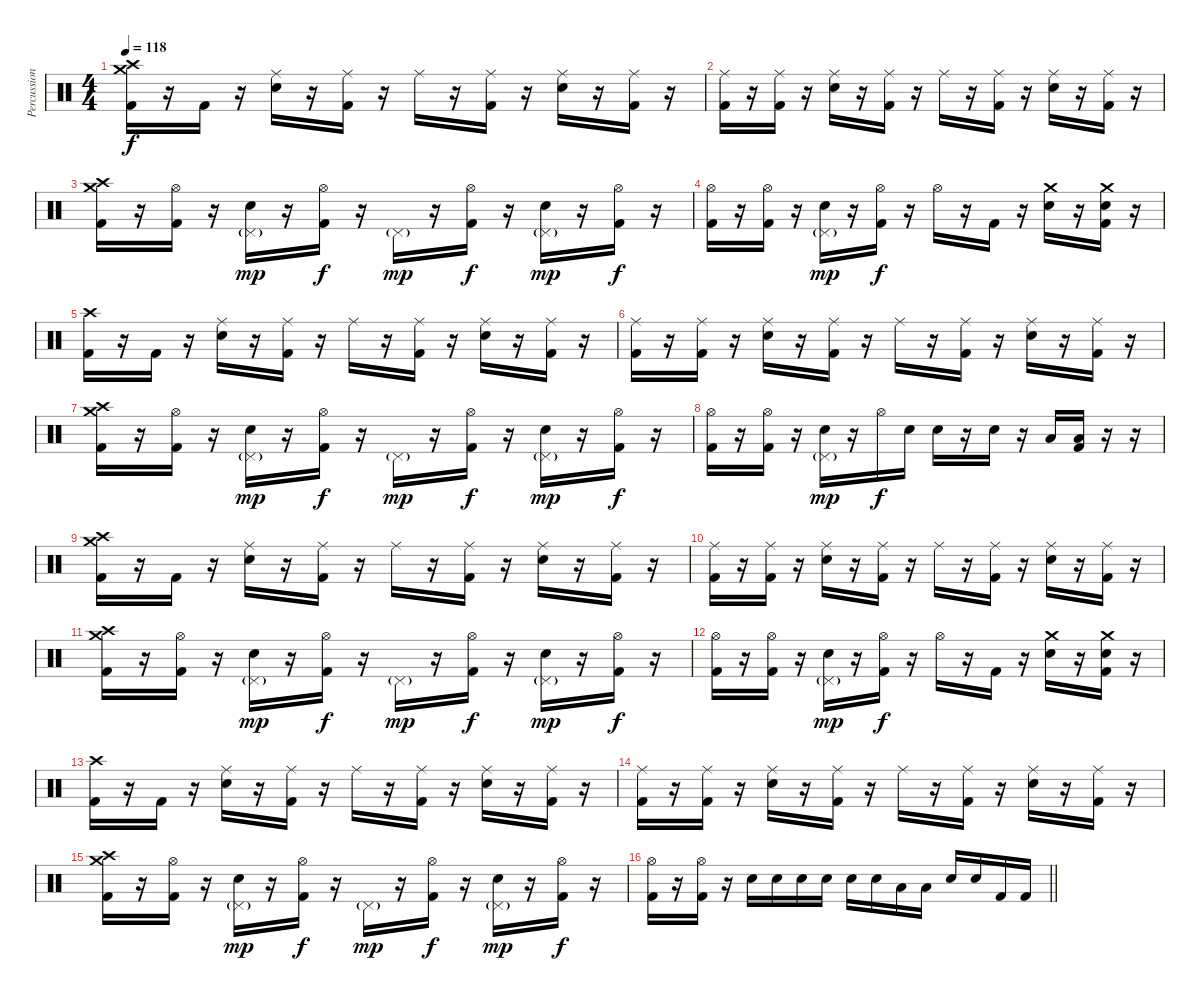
\track ("Percussion" "Percussion") {instrument percussion}
\staff {score}
\articulation defaults
\ts (4 4)
\section ("" "")
\tempo 118
\clef neutral
\ks c
("Crash medium (hit)" "Crash high (hit)" "Kick (hit) 2").16{dy f} r.16 "Kick (hit) 2".16 r.16 ("Ride (middle)" "Electric Snare (hit)").16 r.16 ("Ride (middle)" "Kick (hit) 2").16 r.16 "Ride (middle)".16 r.16 ("Ride (middle)" "Kick (hit) 2").16 r.16 ("Ride (middle)" "Electric Snare (hit)").16 r.16 ("Ride (middle)" "Kick (hit) 2").16 r.16 |
("Ride (middle)" "Kick (hit) 2").16 r.16 ("Ride (middle)" "Kick (hit) 2").16 r.16 ("Ride (middle)" "Electric Snare (hit)").16 r.16 ("Ride (middle)" "Kick (hit) 2").16 r.16 "Ride (middle)".16 r.16 ("Ride (middle)" "Kick (hit) 2").16 r.16 ("Ride (middle)" "Electric Snare (hit)").16 r.16 ("Ride (middle)" "Kick (hit) 2").16 r.16 |
("Crash medium (hit)" "Crash high (hit)" "Kick (hit) 2").16 r.16 ("Hi-Hat (open)" "Kick (hit) 2").16 r.16 ("Pedal Hi-Hat (hit)"{g} "Electric Snare (hit)").16{dy mp} r.16 ("Hi-Hat (open)" "Kick (hit) 2").16{dy f} r.16 "Pedal Hi-Hat (hit)"{g}.16{dy mp} r.16 ("Hi-Hat (open)" "Kick (hit) 2").16{dy f} r.16 ("Pedal Hi-Hat (hit)"{g} "Electric Snare (hit)").16{dy mp} r.16 ("Hi-Hat (open)" "Kick (hit) 2").16{dy f} r.16 |
("Hi-Hat (open)" "Kick (hit) 2").16 r.16 ("Hi-Hat (open)" "Kick (hit) 2").16 r.16 ("Pedal Hi-Hat (hit)"{g} "Electric Snare (hit)").16{dy mp} r.16 ("Hi-Hat (open)" "Kick (hit) 2").16{dy f} r.16 "Hi-Hat (open)".16 r.16 "Kick (hit) 2".16 r.16 ("Crash medium (hit)" "Electric Snare (hit)").16 r.16 ("Crash medium (hit)" "Electric Snare (hit)" "Kick (hit) 2").16 r.16 |
("Crash high (hit)" "Kick (hit) 2").16 r.16 "Kick (hit) 2".16 r.16 ("Ride (middle)" "Electric Snare (hit)").16 r.16 ("Ride (middle)" "Kick (hit) 2").16 r.16 "Ride (middle)".16 r.16 ("Ride (middle)" "Kick (hit) 2").16 r.16 ("Ride (middle)" "Electric Snare (hit)").16 r.16 ("Ride (middle)" "Kick (hit) 2").16 r.16 |
("Ride (middle)" "Kick (hit) 2").16 r.16 ("Ride (middle)" "Kick (hit) 2").16 r.16 ("Ride (middle)" "Electric Snare (hit)").16 r.16 ("Ride (middle)" "Kick (hit) 2").16 r.16 "Ride (middle)".16 r.16 ("Ride (middle)" "Kick (hit) 2").16 r.16 ("Ride (middle)" "Electric Snare (hit)").16 r.16 ("Ride (middle)" "Kick (hit) 2").16 r.16 |
("Crash medium (hit)" "Crash high (hit)" "Kick (hit) 2").16 r.16 ("Hi-Hat (open)" "Kick (hit) 2").16 r.16 ("Pedal Hi-Hat (hit)"{g} "Electric Snare (hit)").16{dy mp} r.16 ("Hi-Hat (open)" "Kick (hit) 2").16{dy f} r.16 "Pedal Hi-Hat (hit)"{g}.16{dy mp} r.16 ("Hi-Hat (open)" "Kick (hit) 2").16{dy f} r.16 ("Pedal Hi-Hat (hit)"{g} "Electric Snare (hit)").16{dy mp} r.16 ("Hi-Hat (open)" "Kick (hit) 2").16{dy f} r.16 |
("Hi-Hat (open)" "Kick (hit) 2").16 r.16 ("Hi-Hat (open)" "Kick (hit) 2").16 r.16 ("Pedal Hi-Hat (hit)"{g} "Electric Snare (hit)").16{dy mp} r.16 "Hi-Hat (open)".16{dy f} "Electric Snare (hit)".16 "Electric Snare (hit)".16 r.16 "Electric Snare (hit)".16 r.16 "Low Tom (hit)".16 ("Low Tom (hit)" "Kick (hit) 2").16 r.16 r.16 |
("Crash medium (hit)" "Crash high (hit)" "Kick (hit) 2").16 r.16 "Kick (hit) 2".16 r.16 ("Ride (middle)" "Electric Snare (hit)").16 r.16 ("Ride (middle)" "Kick (hit) 2").16 r.16 "Ride (middle)".16 r.16 ("Ride (middle)" "Kick (hit) 2").16 r.16 ("Ride (middle)" "Electric Snare (hit)").16 r.16 ("Ride (middle)" "Kick (hit) 2").16 r.16 |
("Ride (middle)" "Kick (hit) 2").16 r.16 ("Ride (middle)" "Kick (hit) 2").16 r.16 ("Ride (middle)" "Electric Snare (hit)").16 r.16 ("Ride (middle)" "Kick (hit) 2").16 r.16 "Ride (middle)".16 r.16 ("Ride (middle)" "Kick (hit) 2").16 r.16 ("Ride (middle)" "Electric Snare (hit)").16 r.16 ("Ride (middle)" "Kick (hit) 2").16 r.16 |
("Crash medium (hit)" "Crash high (hit)" "Kick (hit) 2").16 r.16 ("Hi-Hat (open)" "Kick (hit) 2").16 r.16 ("Pedal Hi-Hat (hit)"{g} "Electric Snare (hit)").16{dy mp} r.16 ("Hi-Hat (open)" "Kick (hit) 2").16{dy f} r.16 "Pedal Hi-Hat (hit)"{g}.16{dy mp} r.16 ("Hi-Hat (open)" "Kick (hit) 2").16{dy f} r.16 ("Pedal Hi-Hat (hit)"{g} "Electric Snare (hit)").16{dy mp} r.16 ("Hi-Hat (open)" "Kick (hit) 2").16{dy f} r.16 |
("Hi-Hat (open)" "Kick (hit) 2").16 r.16 ("Hi-Hat (open)" "Kick (hit) 2").16 r.16 ("Pedal Hi-Hat (hit)"{g} "Electric Snare (hit)").16{dy mp} r.16 ("Hi-Hat (open)" "Kick (hit) 2").16{dy f} r.16 "Hi-Hat (open)".16 r.16 "Kick (hit) 2".16 r.16 ("Crash medium (hit)" "Electric Snare (hit)").16 r.16 ("Crash medium (hit)" "Electric Snare (hit)" "Kick (hit) 2").16 r.16 |
("Crash high (hit)" "Kick (hit) 2").16 r.16 "Kick (hit) 2".16 r.16 ("Ride (middle)" "Electric Snare (hit)").16 r.16 ("Ride (middle)" "Kick (hit) 2").16 r.16 "Ride (middle)".16 r.16 ("Ride (middle)" "Kick (hit) 2").16 r.16 ("Ride (middle)" "Electric Snare (hit)").16 r.16 ("Ride (middle)" "Kick (hit) 2").16 r.16 |
("Ride (middle)" "Kick (hit) 2").16 r.16 ("Ride (middle)" "Kick (hit) 2").16 r.16 ("Ride (middle)" "Electric Snare (hit)").16 r.16 ("Ride (middle)" "Kick (hit) 2").16 r.16 "Ride (middle)".16 r.16 ("Ride (middle)" "Kick (hit) 2").16 r.16 ("Ride (middle)" "Electric Snare (hit)").16 r.16 ("Ride (middle)" "Kick (hit) 2").16 r.16 |
("Crash medium (hit)" "Crash high (hit)" "Kick (hit) 2").16 r.16 ("Hi-Hat (open)" "Kick (hit) 2").16 r.16 ("Pedal Hi-Hat (hit)"{g} "Electric Snare (hit)").16{dy mp} r.16 ("Hi-Hat (open)" "Kick (hit) 2").16{dy f} r.16 "Pedal Hi-Hat (hit)"{g}.16{dy mp} r.16 ("Hi-Hat (open)" "Kick (hit) 2").16{dy f} r.16 ("Pedal Hi-Hat (hit)"{g} "Electric Snare (hit)").16{dy mp} r.16 ("Hi-Hat (open)" "Kick (hit) 2").16{dy f} r.16 |
\barLineRight lightlight
("Hi-Hat (open)" "Kick (hit) 2").16 r.16 ("Hi-Hat (open)" "Kick (hit) 2").16 r.16 "Electric Snare (hit)".16 "Electric Snare (hit)".16 "Electric Snare (hit)".16 "Electric Snare (hit)".16 "Electric Snare (hit)".16 "Electric Snare (hit)".16 "Low Tom (hit)".16 "Low Tom (hit)".16 "Electric Snare (hit)".16 "Electric Snare (hit)".16 "Kick (hit) 2".16 "Kick (hit) 2".16
